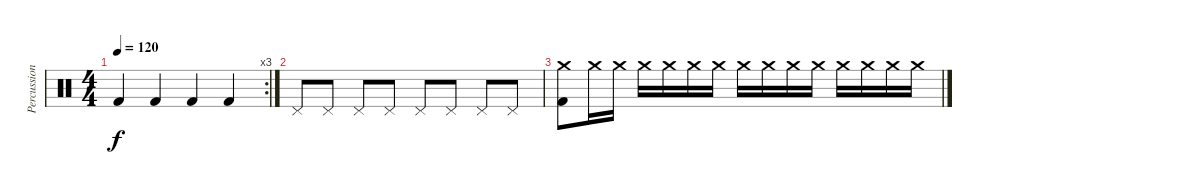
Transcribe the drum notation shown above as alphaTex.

\track ("Percussions" "Percussion") {instrument percussion}
\staff {score}
\articulation defaults
\rc 3
\ts (4 4)
\tempo 120
\clef neutral
\ks c "Kick (hit) 2".4{dy f} "Kick (hit) 2".4 "Kick (hit) 2".4 "Kick (hit) 2".4
|
"Pedal Hi-Hat (hit)".8 "Pedal Hi-Hat (hit)".8 "Pedal Hi-Hat (hit)".8 "Pedal Hi-Hat (hit)".8 "Pedal Hi-Hat (hit)".8 "Pedal Hi-Hat (hit)".8 "Pedal Hi-Hat (hit)".8 "Pedal Hi-Hat (hit)".8 |
("Crash medium (hit)" "Kick (hit) 2").8 "Crash medium (hit)".16 "Crash medium (hit)".16 "Crash medium (hit)".16 "Crash medium (hit)".16 "Crash medium (hit)".16 "Crash medium (hit)".16 "Crash medium (hit)".16 "Crash medium (hit)".16 "Crash medium (hit)".16 "Crash medium (hit)".16 "Crash medium (hit)".16 "Crash medium (hit)".16 "Crash medium (hit)".16 "Crash medium (hit)".16
